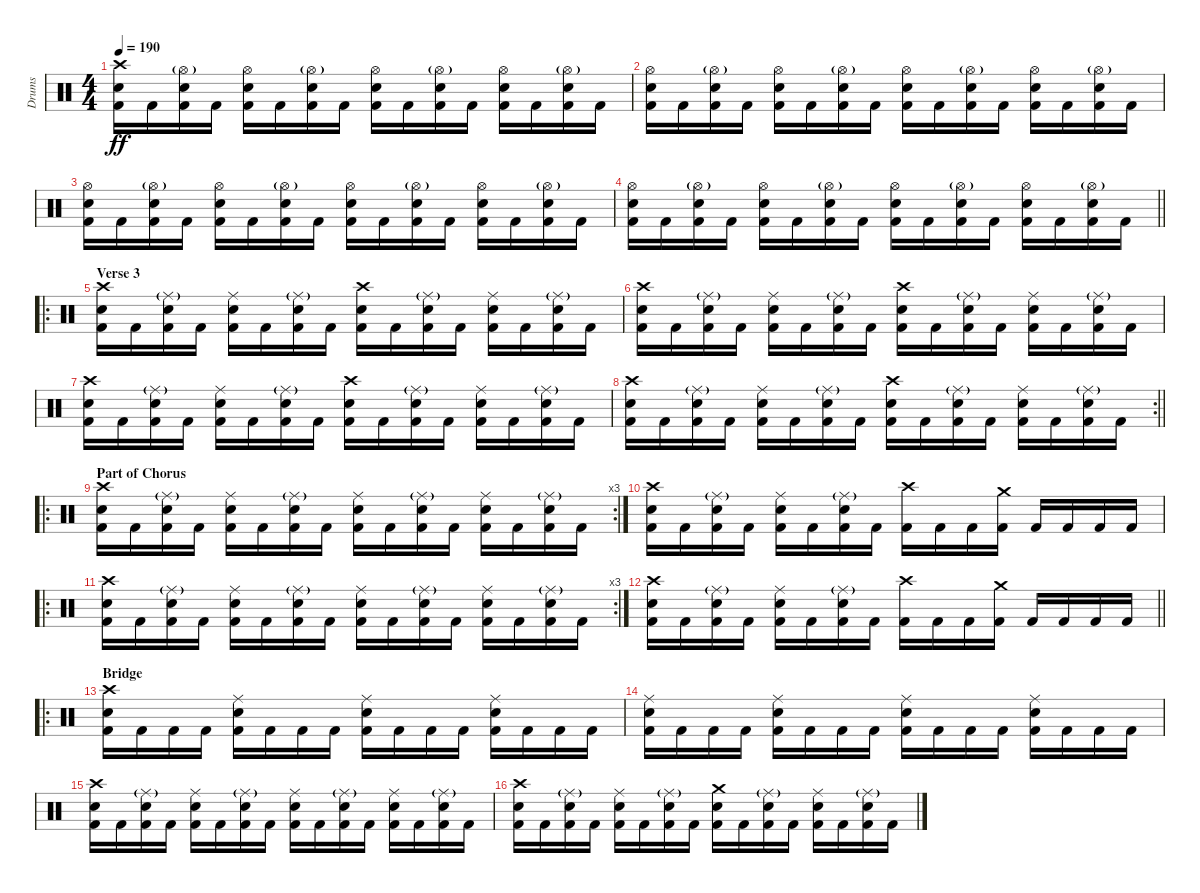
\track ("Drums" "Drums") {instrument percussion}
\staff {score}
\articulation defaults
\ts (4 4)
\section ("" "")
\tempo 190
\clef neutral
\ks c
("Crash high (hit)" "Electric Snare (hit)" "Kick (hit) 2").16{dy ff} "Kick (hit) 2".16 ("Hi-Hat (open)"{g} "Electric Snare (hit)" "Kick (hit) 2").16 "Kick (hit) 2".16 ("Hi-Hat (open)" "Electric Snare (hit)" "Kick (hit) 2").16 "Kick (hit) 2".16 ("Hi-Hat (open)"{g} "Electric Snare (hit)" "Kick (hit) 2").16 "Kick (hit) 2".16 ("Hi-Hat (open)" "Electric Snare (hit)" "Kick (hit) 2").16 "Kick (hit) 2".16 ("Hi-Hat (open)"{g} "Electric Snare (hit)" "Kick (hit) 2").16 "Kick (hit) 2".16 ("Hi-Hat (open)" "Electric Snare (hit)" "Kick (hit) 2").16 "Kick (hit) 2".16 ("Hi-Hat (open)"{g} "Electric Snare (hit)" "Kick (hit) 2").16 "Kick (hit) 2".16 |
("Hi-Hat (open)" "Electric Snare (hit)" "Kick (hit) 2").16 "Kick (hit) 2".16 ("Hi-Hat (open)"{g} "Electric Snare (hit)" "Kick (hit) 2").16 "Kick (hit) 2".16 ("Hi-Hat (open)" "Electric Snare (hit)" "Kick (hit) 2").16 "Kick (hit) 2".16 ("Hi-Hat (open)"{g} "Electric Snare (hit)" "Kick (hit) 2").16 "Kick (hit) 2".16 ("Hi-Hat (open)" "Electric Snare (hit)" "Kick (hit) 2").16 "Kick (hit) 2".16 ("Hi-Hat (open)"{g} "Electric Snare (hit)" "Kick (hit) 2").16 "Kick (hit) 2".16 ("Hi-Hat (open)" "Electric Snare (hit)" "Kick (hit) 2").16 "Kick (hit) 2".16 ("Hi-Hat (open)"{g} "Electric Snare (hit)" "Kick (hit) 2").16 "Kick (hit) 2".16 |
("Hi-Hat (open)" "Electric Snare (hit)" "Kick (hit) 2").16 "Kick (hit) 2".16 ("Hi-Hat (open)"{g} "Electric Snare (hit)" "Kick (hit) 2").16 "Kick (hit) 2".16 ("Hi-Hat (open)" "Electric Snare (hit)" "Kick (hit) 2").16 "Kick (hit) 2".16 ("Hi-Hat (open)"{g} "Electric Snare (hit)" "Kick (hit) 2").16 "Kick (hit) 2".16 ("Hi-Hat (open)" "Electric Snare (hit)" "Kick (hit) 2").16 "Kick (hit) 2".16 ("Hi-Hat (open)"{g} "Electric Snare (hit)" "Kick (hit) 2").16 "Kick (hit) 2".16 ("Hi-Hat (open)" "Electric Snare (hit)" "Kick (hit) 2").16 "Kick (hit) 2".16 ("Hi-Hat (open)"{g} "Electric Snare (hit)" "Kick (hit) 2").16 "Kick (hit) 2".16 |
\barLineRight lightlight
("Hi-Hat (open)" "Electric Snare (hit)" "Kick (hit) 2").16 "Kick (hit) 2".16 ("Hi-Hat (open)"{g} "Electric Snare (hit)" "Kick (hit) 2").16 "Kick (hit) 2".16 ("Hi-Hat (open)" "Electric Snare (hit)" "Kick (hit) 2").16 "Kick (hit) 2".16 ("Hi-Hat (open)"{g} "Electric Snare (hit)" "Kick (hit) 2").16 "Kick (hit) 2".16 ("Hi-Hat (open)" "Electric Snare (hit)" "Kick (hit) 2").16 "Kick (hit) 2".16 ("Hi-Hat (open)"{g} "Electric Snare (hit)" "Kick (hit) 2").16 "Kick (hit) 2".16 ("Hi-Hat (open)" "Electric Snare (hit)" "Kick (hit) 2").16 "Kick (hit) 2".16 ("Hi-Hat (open)"{g} "Electric Snare (hit)" "Kick (hit) 2").16 "Kick (hit) 2".16 |
\ro
\section ("" "Verse 3")
("Crash high (hit)" "Electric Snare (hit)" "Kick (hit) 2").16 "Kick (hit) 2".16 ("Ride (middle)"{g} "Electric Snare (hit)" "Kick (hit) 2").16 "Kick (hit) 2".16 ("Ride (middle)" "Electric Snare (hit)" "Kick (hit) 2").16 "Kick (hit) 2".16 ("Ride (middle)"{g} "Electric Snare (hit)" "Kick (hit) 2").16 "Kick (hit) 2".16 ("Crash high (hit)" "Electric Snare (hit)" "Kick (hit) 2").16 "Kick (hit) 2".16 ("Ride (middle)"{g} "Electric Snare (hit)" "Kick (hit) 2").16 "Kick (hit) 2".16 ("Ride (middle)" "Electric Snare (hit)" "Kick (hit) 2").16 "Kick (hit) 2".16 ("Ride (middle)"{g} "Electric Snare (hit)" "Kick (hit) 2").16 "Kick (hit) 2".16 |
("Crash high (hit)" "Electric Snare (hit)" "Kick (hit) 2").16 "Kick (hit) 2".16 ("Ride (middle)"{g} "Electric Snare (hit)" "Kick (hit) 2").16 "Kick (hit) 2".16 ("Ride (middle)" "Electric Snare (hit)" "Kick (hit) 2").16 "Kick (hit) 2".16 ("Ride (middle)"{g} "Electric Snare (hit)" "Kick (hit) 2").16 "Kick (hit) 2".16 ("Crash high (hit)" "Electric Snare (hit)" "Kick (hit) 2").16 "Kick (hit) 2".16 ("Ride (middle)"{g} "Electric Snare (hit)" "Kick (hit) 2").16 "Kick (hit) 2".16 ("Ride (middle)" "Electric Snare (hit)" "Kick (hit) 2").16 "Kick (hit) 2".16 ("Ride (middle)"{g} "Electric Snare (hit)" "Kick (hit) 2").16 "Kick (hit) 2".16 |
("Crash high (hit)" "Electric Snare (hit)" "Kick (hit) 2").16 "Kick (hit) 2".16 ("Ride (middle)"{g} "Electric Snare (hit)" "Kick (hit) 2").16 "Kick (hit) 2".16 ("Ride (middle)" "Electric Snare (hit)" "Kick (hit) 2").16 "Kick (hit) 2".16 ("Ride (middle)"{g} "Electric Snare (hit)" "Kick (hit) 2").16 "Kick (hit) 2".16 ("Crash high (hit)" "Electric Snare (hit)" "Kick (hit) 2").16 "Kick (hit) 2".16 ("Ride (middle)"{g} "Electric Snare (hit)" "Kick (hit) 2").16 "Kick (hit) 2".16 ("Ride (middle)" "Electric Snare (hit)" "Kick (hit) 2").16 "Kick (hit) 2".16 ("Ride (middle)"{g} "Electric Snare (hit)" "Kick (hit) 2").16 "Kick (hit) 2".16 |
\rc 2
\barLineRight lightlight
("Crash high (hit)" "Electric Snare (hit)" "Kick (hit) 2").16 "Kick (hit) 2".16 ("Ride (middle)"{g} "Electric Snare (hit)" "Kick (hit) 2").16 "Kick (hit) 2".16 ("Ride (middle)" "Electric Snare (hit)" "Kick (hit) 2").16 "Kick (hit) 2".16 ("Ride (middle)"{g} "Electric Snare (hit)" "Kick (hit) 2").16 "Kick (hit) 2".16 ("Crash high (hit)" "Electric Snare (hit)" "Kick (hit) 2").16 "Kick (hit) 2".16 ("Ride (middle)"{g} "Electric Snare (hit)" "Kick (hit) 2").16 "Kick (hit) 2".16 ("Ride (middle)" "Electric Snare (hit)" "Kick (hit) 2").16 "Kick (hit) 2".16 ("Ride (middle)"{g} "Electric Snare (hit)" "Kick (hit) 2").16 "Kick (hit) 2".16 |
\ro
\rc 3
\section ("" "Part of Chorus")
("Crash high (hit)" "Electric Snare (hit)" "Kick (hit) 2").16 "Kick (hit) 2".16 ("Ride (middle)"{g} "Electric Snare (hit)" "Kick (hit) 2").16 "Kick (hit) 2".16 ("Ride (middle)" "Electric Snare (hit)" "Kick (hit) 2").16 "Kick (hit) 2".16 ("Ride (middle)"{g} "Electric Snare (hit)" "Kick (hit) 2").16 "Kick (hit) 2".16 ("Ride (middle)" "Electric Snare (hit)" "Kick (hit) 2").16 "Kick (hit) 2".16 ("Ride (middle)"{g} "Electric Snare (hit)" "Kick (hit) 2").16 "Kick (hit) 2".16 ("Ride (middle)" "Electric Snare (hit)" "Kick (hit) 2").16 "Kick (hit) 2".16 ("Ride (middle)"{g} "Electric Snare (hit)" "Kick (hit) 2").16 "Kick (hit) 2".16 |
("Crash high (hit)" "Electric Snare (hit)" "Kick (hit) 2").16 "Kick (hit) 2".16 ("Ride (middle)"{g} "Electric Snare (hit)" "Kick (hit) 2").16 "Kick (hit) 2".16 ("Ride (middle)" "Electric Snare (hit)" "Kick (hit) 2").16 "Kick (hit) 2".16 ("Ride (middle)"{g} "Electric Snare (hit)" "Kick (hit) 2").16 "Kick (hit) 2".16 ("Crash high (hit)" "Kick (hit) 2").16 "Kick (hit) 2".16 "Kick (hit) 2".16 ("Crash medium (hit)" "Kick (hit) 2").16 "Kick (hit) 2".16 "Kick (hit) 2".16 "Kick (hit) 2".16 "Kick (hit) 2".16 |
\ro
\rc 3
("Crash high (hit)" "Electric Snare (hit)" "Kick (hit) 2").16 "Kick (hit) 2".16 ("Ride (middle)"{g} "Electric Snare (hit)" "Kick (hit) 2").16 "Kick (hit) 2".16 ("Ride (middle)" "Electric Snare (hit)" "Kick (hit) 2").16 "Kick (hit) 2".16 ("Ride (middle)"{g} "Electric Snare (hit)" "Kick (hit) 2").16 "Kick (hit) 2".16 ("Ride (middle)" "Electric Snare (hit)" "Kick (hit) 2").16 "Kick (hit) 2".16 ("Ride (middle)"{g} "Electric Snare (hit)" "Kick (hit) 2").16 "Kick (hit) 2".16 ("Ride (middle)" "Electric Snare (hit)" "Kick (hit) 2").16 "Kick (hit) 2".16 ("Ride (middle)"{g} "Electric Snare (hit)" "Kick (hit) 2").16 "Kick (hit) 2".16 |
\barLineRight lightlight
("Crash high (hit)" "Electric Snare (hit)" "Kick (hit) 2").16 "Kick (hit) 2".16 ("Ride (middle)"{g} "Electric Snare (hit)" "Kick (hit) 2").16 "Kick (hit) 2".16 ("Ride (middle)" "Electric Snare (hit)" "Kick (hit) 2").16 "Kick (hit) 2".16 ("Ride (middle)"{g} "Electric Snare (hit)" "Kick (hit) 2").16 "Kick (hit) 2".16 ("Crash high (hit)" "Kick (hit) 2").16 "Kick (hit) 2".16 "Kick (hit) 2".16 ("Crash medium (hit)" "Kick (hit) 2").16 "Kick (hit) 2".16 "Kick (hit) 2".16 "Kick (hit) 2".16 "Kick (hit) 2".16 |
\ro
\section ("" "Bridge")
("Crash high (hit)" "Electric Snare (hit)" "Kick (hit) 2").16 "Kick (hit) 2".16 "Kick (hit) 2".16 "Kick (hit) 2".16 ("Ride (middle)" "Electric Snare (hit)" "Kick (hit) 2").16 "Kick (hit) 2".16 "Kick (hit) 2".16 "Kick (hit) 2".16 ("Ride (middle)" "Electric Snare (hit)" "Kick (hit) 2").16 "Kick (hit) 2".16 "Kick (hit) 2".16 "Kick (hit) 2".16 ("Ride (middle)" "Electric Snare (hit)" "Kick (hit) 2").16 "Kick (hit) 2".16 "Kick (hit) 2".16 "Kick (hit) 2".16 |
("Ride (middle)" "Electric Snare (hit)" "Kick (hit) 2").16 "Kick (hit) 2".16 "Kick (hit) 2".16 "Kick (hit) 2".16 ("Ride (middle)" "Electric Snare (hit)" "Kick (hit) 2").16 "Kick (hit) 2".16 "Kick (hit) 2".16 "Kick (hit) 2".16 ("Ride (middle)" "Electric Snare (hit)" "Kick (hit) 2").16 "Kick (hit) 2".16 "Kick (hit) 2".16 "Kick (hit) 2".16 ("Ride (middle)" "Electric Snare (hit)" "Kick (hit) 2").16 "Kick (hit) 2".16 "Kick (hit) 2".16 "Kick (hit) 2".16 |
("Crash high (hit)" "Electric Snare (hit)" "Kick (hit) 2").16 "Kick (hit) 2".16 ("Ride (middle)"{g} "Electric Snare (hit)" "Kick (hit) 2").16 "Kick (hit) 2".16 ("Ride (middle)" "Electric Snare (hit)" "Kick (hit) 2").16 "Kick (hit) 2".16 ("Ride (middle)"{g} "Electric Snare (hit)" "Kick (hit) 2").16 "Kick (hit) 2".16 ("Ride (middle)" "Electric Snare (hit)" "Kick (hit) 2").16 "Kick (hit) 2".16 ("Ride (middle)"{g} "Electric Snare (hit)" "Kick (hit) 2").16 "Kick (hit) 2".16 ("Ride (middle)" "Electric Snare (hit)" "Kick (hit) 2").16 "Kick (hit) 2".16 ("Ride (middle)"{g} "Electric Snare (hit)" "Kick (hit) 2").16 "Kick (hit) 2".16 |
("Crash high (hit)" "Electric Snare (hit)" "Kick (hit) 2").16 "Kick (hit) 2".16 ("Ride (middle)"{g} "Electric Snare (hit)" "Kick (hit) 2").16 "Kick (hit) 2".16 ("Ride (middle)" "Electric Snare (hit)" "Kick (hit) 2").16 "Kick (hit) 2".16 ("Ride (middle)"{g} "Electric Snare (hit)" "Kick (hit) 2").16 "Kick (hit) 2".16 ("Crash medium (hit)" "Electric Snare (hit)" "Kick (hit) 2").16 "Kick (hit) 2".16 ("Ride (middle)"{g} "Electric Snare (hit)" "Kick (hit) 2").16 "Kick (hit) 2".16 ("Ride (middle)" "Electric Snare (hit)" "Kick (hit) 2").16 "Kick (hit) 2".16 ("Ride (middle)"{g} "Electric Snare (hit)" "Kick (hit) 2").16 "Kick (hit) 2".16
